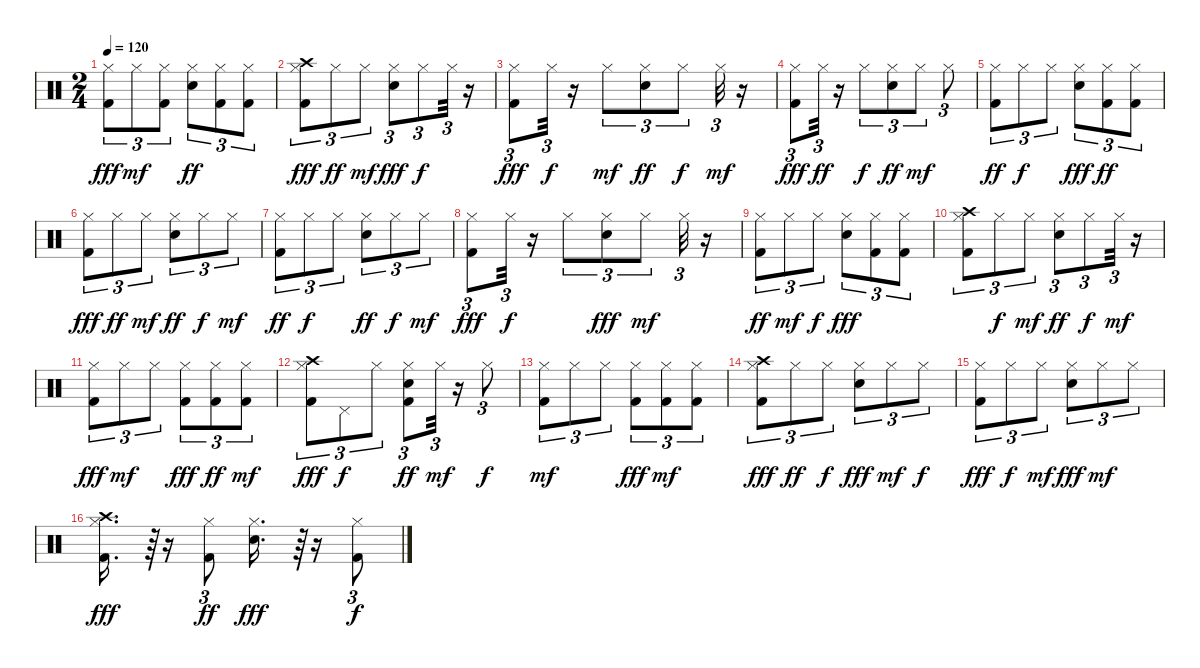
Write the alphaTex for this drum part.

\track "" {instrument percussion}
\staff {score}
\articulation defaults
\ts (2 4)
\tempo 120
\clef neutral
\ks c
("Hi-Hat (closed)" "Kick (hit) 2").8{tu (3 2) dy fff} "Hi-Hat (closed)".8{tu (3 2) dy mf} ("Kick (hit) 2" "Hi-Hat (closed)").8{tu (3 2)} ("Snare (hit) 2" "Hi-Hat (closed)").8{tu (3 2) dy ff} ("Kick (hit) 2" "Hi-Hat (closed)").8{tu (3 2)} ("Kick (hit) 2" "Hi-Hat (closed)").8{tu (3 2)} |
("Hi-Hat (closed)" "Crash high (hit)" "Kick (hit) 2").8{tu (3 2) dy fff} "Hi-Hat (closed)".8{tu (3 2) dy ff} "Hi-Hat (closed)".8{tu (3 2) dy mf} ("Hi-Hat (closed)" "Snare (hit) 2").8{tu (3 2) dy fff} "Hi-Hat (closed)".8{tu (3 2) dy f} "Hi-Hat (closed)".32{tu (3 2)} r.16 |
("Kick (hit) 2" "Hi-Hat (closed)").8{tu (3 2) dy fff} "Hi-Hat (closed)".32{tu (3 2) dy f} r.16 "Hi-Hat (closed)".8{tu (3 2) dy mf} ("Snare (hit) 2" "Hi-Hat (closed)").8{tu (3 2) dy ff} "Hi-Hat (closed)".8{tu (3 2) dy f} "Hi-Hat (closed)".32{tu (3 2) dy mf} r.16 |
("Kick (hit) 2" "Hi-Hat (closed)").8{tu (3 2) dy fff} "Hi-Hat (closed)".32{tu (3 2) dy ff} r.16 "Hi-Hat (closed)".8{tu (3 2) dy f} ("Snare (hit) 2" "Hi-Hat (closed)").8{tu (3 2) dy ff} "Hi-Hat (closed)".8{tu (3 2) dy mf} "Hi-Hat (closed)".8{tu (3 2)} |
("Kick (hit) 2" "Hi-Hat (closed)").8{tu (3 2) dy ff} "Hi-Hat (closed)".8{tu (3 2) dy f} "Hi-Hat (closed)".8{tu (3 2)} ("Snare (hit) 2" "Hi-Hat (closed)").8{tu (3 2) dy fff} ("Hi-Hat (closed)" "Kick (hit) 2").8{tu (3 2) dy ff} ("Hi-Hat (closed)" "Kick (hit) 2").8{tu (3 2)} |
("Hi-Hat (closed)" "Kick (hit) 2").8{tu (3 2) dy fff} "Hi-Hat (closed)".8{tu (3 2) dy ff} "Hi-Hat (closed)".8{tu (3 2) dy mf} ("Snare (hit) 2" "Hi-Hat (closed)").8{tu (3 2) dy ff} "Hi-Hat (closed)".8{tu (3 2) dy f} "Hi-Hat (closed)".8{tu (3 2) dy mf} |
("Kick (hit) 2" "Hi-Hat (closed)").8{tu (3 2) dy ff} "Hi-Hat (closed)".8{tu (3 2) dy f} "Hi-Hat (closed)".8{tu (3 2)} ("Snare (hit) 2" "Hi-Hat (closed)").8{tu (3 2) dy ff} "Hi-Hat (closed)".8{tu (3 2) dy f} "Hi-Hat (closed)".8{tu (3 2) dy mf} |
("Kick (hit) 2" "Hi-Hat (closed)").8{tu (3 2) dy fff} "Hi-Hat (closed)".32{tu (3 2) dy f} r.16 "Hi-Hat (closed)".8{tu (3 2)} ("Hi-Hat (closed)" "Snare (hit) 2").8{tu (3 2) dy fff} "Hi-Hat (closed)".8{tu (3 2) dy mf} "Hi-Hat (closed)".32{tu (3 2)} r.16 |
("Kick (hit) 2" "Hi-Hat (closed)").8{tu (3 2) dy ff} "Hi-Hat (closed)".8{tu (3 2) dy mf} "Hi-Hat (closed)".8{tu (3 2) dy f} ("Snare (hit) 2" "Hi-Hat (closed)").8{tu (3 2) dy fff} ("Hi-Hat (closed)" "Kick (hit) 2").8{tu (3 2)} ("Hi-Hat (closed)" "Kick (hit) 2").8{tu (3 2)} |
("Hi-Hat (closed)" "Crash high (hit)" "Kick (hit) 2").8{tu (3 2)} "Hi-Hat (closed)".8{tu (3 2) dy f} "Hi-Hat (closed)".8{tu (3 2) dy mf} ("Snare (hit) 2" "Hi-Hat (closed)").8{tu (3 2) dy ff} "Hi-Hat (closed)".8{tu (3 2) dy f} "Hi-Hat (closed)".32{tu (3 2) dy mf} r.16 |
("Kick (hit) 2" "Hi-Hat (closed)").8{tu (3 2) dy fff} "Hi-Hat (closed)".8{tu (3 2) dy mf} "Hi-Hat (closed)".8{tu (3 2)} ("Kick (hit) 2" "Hi-Hat (closed)").8{tu (3 2) dy fff} ("Hi-Hat (closed)" "Kick (hit) 2").8{tu (3 2) dy ff} ("Hi-Hat (closed)" "Kick (hit) 2").8{tu (3 2) dy mf} |
("Crash high (hit)" "Kick (hit) 2" "Hi-Hat (closed)").8{tu (3 2) dy fff} "Pedal Hi-Hat (hit)".8{tu (3 2) dy f} "Hi-Hat (closed)".8{tu (3 2)} ("Snare (hit) 2" "Kick (hit) 2" "Hi-Hat (closed)").8{tu (3 2) dy ff} "Hi-Hat (closed)".32{tu (3 2) dy mf} r.16 "Hi-Hat (closed)".8{tu (3 2) dy f} |
("Kick (hit) 2" "Hi-Hat (closed)").8{tu (3 2) dy mf} "Hi-Hat (closed)".8{tu (3 2)} "Hi-Hat (closed)".8{tu (3 2)} ("Kick (hit) 2" "Hi-Hat (closed)").8{tu (3 2) dy fff} ("Kick (hit) 2" "Hi-Hat (closed)").8{tu (3 2) dy mf} ("Kick (hit) 2" "Hi-Hat (closed)").8{tu (3 2)} |
("Crash high (hit)" "Hi-Hat (closed)" "Kick (hit) 2").8{tu (3 2) dy fff} "Hi-Hat (closed)".8{tu (3 2) dy ff} "Hi-Hat (closed)".8{tu (3 2) dy f} ("Snare (hit) 2" "Hi-Hat (closed)").8{tu (3 2) dy fff} "Hi-Hat (closed)".8{tu (3 2) dy mf} "Hi-Hat (closed)".8{tu (3 2) dy f} |
("Kick (hit) 2" "Hi-Hat (closed)").8{tu (3 2) dy fff} "Hi-Hat (closed)".8{tu (3 2) dy f} "Hi-Hat (closed)".8{tu (3 2) dy mf} ("Snare (hit) 2" "Hi-Hat (closed)").8{tu (3 2) dy fff} "Hi-Hat (closed)".8{tu (3 2) dy mf} "Hi-Hat (closed)".8{tu (3 2)} |
("Crash high (hit)" "Hi-Hat (closed)" "Kick (hit) 2").16{d dy fff} r.64{tu (3 2)} r.16 ("Hi-Hat (closed)" "Kick (hit) 2").8{tu (3 2) dy ff} ("Snare (hit) 2" "Hi-Hat (closed)").16{d dy fff} r.64{tu (3 2)} r.16 ("Kick (hit) 2" "Hi-Hat (closed)").8{tu (3 2) dy f}
